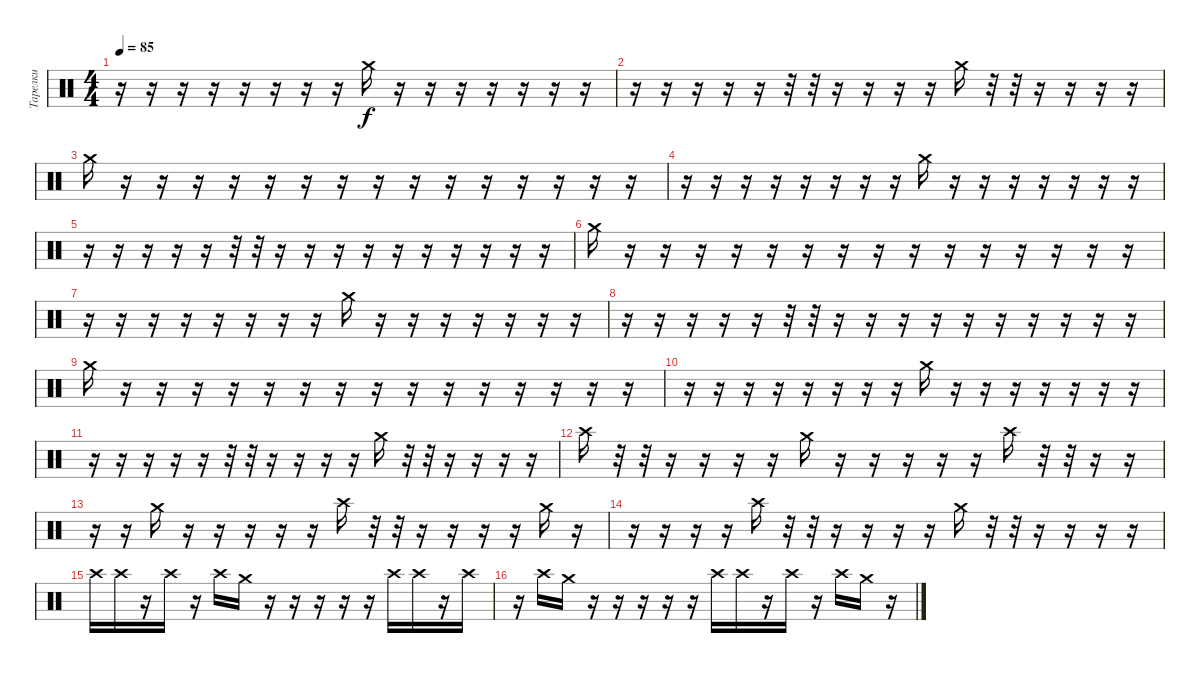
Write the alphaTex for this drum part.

\track ("Тарелки" "Тарелки") {instrument percussion}
\staff {score}
\articulation defaults
\ts (4 4)
\tempo 85
\clef neutral
\ks c
r.16{dy f} r.16 r.16 r.16 r.16 r.16 r.16 r.16 "Crash medium (hit)".16 r.16 r.16 r.16 r.16 r.16 r.16 r.16 |
r.16 r.16 r.16 r.16 r.16 r.32 r.32 r.16 r.16 r.16 r.16 "Crash medium (hit)".16 r.32 r.32 r.16 r.16 r.16 r.16 |
"Crash medium (hit)".16 r.16 r.16 r.16 r.16 r.16 r.16 r.16 r.16 r.16 r.16 r.16 r.16 r.16 r.16 r.16 |
r.16 r.16 r.16 r.16 r.16 r.16 r.16 r.16 "Crash medium (hit)".16 r.16 r.16 r.16 r.16 r.16 r.16 r.16 |
r.16 r.16 r.16 r.16 r.16 r.32 r.32 r.16 r.16 r.16 r.16 r.16 r.16 r.16 r.16 r.16 r.16 |
"Crash medium (hit)".16 r.16 r.16 r.16 r.16 r.16 r.16 r.16 r.16 r.16 r.16 r.16 r.16 r.16 r.16 r.16 |
r.16 r.16 r.16 r.16 r.16 r.16 r.16 r.16 "Crash medium (hit)".16 r.16 r.16 r.16 r.16 r.16 r.16 r.16 |
r.16 r.16 r.16 r.16 r.16 r.32 r.32 r.16 r.16 r.16 r.16 r.16 r.16 r.16 r.16 r.16 r.16 |
"Crash medium (hit)".16 r.16 r.16 r.16 r.16 r.16 r.16 r.16 r.16 r.16 r.16 r.16 r.16 r.16 r.16 r.16 |
r.16 r.16 r.16 r.16 r.16 r.16 r.16 r.16 "Crash medium (hit)".16 r.16 r.16 r.16 r.16 r.16 r.16 r.16 |
r.16 r.16 r.16 r.16 r.16 r.32 r.32 r.16 r.16 r.16 r.16 "Crash medium (hit)".16 r.32 r.32 r.16 r.16 r.16 r.16 |
"Crash high (hit)".16 r.32 r.32 r.16 r.16 r.16 r.16 "Crash medium (hit)".16 r.16 r.16 r.16 r.16 r.16 "Crash high (hit)".16 r.32 r.32 r.16 r.16 |
r.16 r.16 "Crash medium (hit)".16 r.16 r.16 r.16 r.16 r.16 "Crash high (hit)".16 r.32 r.32 r.16 r.16 r.16 r.16 "Crash medium (hit)".16 r.16 |
r.16 r.16 r.16 r.16 "Crash high (hit)".16 r.32 r.32 r.16 r.16 r.16 r.16 "Crash medium (hit)".16 r.32 r.32 r.16 r.16 r.16 r.16 |
"Crash high (hit)".16 "Crash high (hit)".16 r.16 "Crash high (hit)".16 r.16 "Crash high (hit)".16 "Crash medium (hit)".16 r.16 r.16 r.16 r.16 r.16 "Crash high (hit)".16 "Crash high (hit)".16 r.16 "Crash high (hit)".16 |
r.16 "Crash high (hit)".16 "Crash medium (hit)".16 r.16 r.16 r.16 r.16 r.16 "Crash high (hit)".16 "Crash high (hit)".16 r.16 "Crash high (hit)".16 r.16 "Crash high (hit)".16 "Crash medium (hit)".16 r.16
